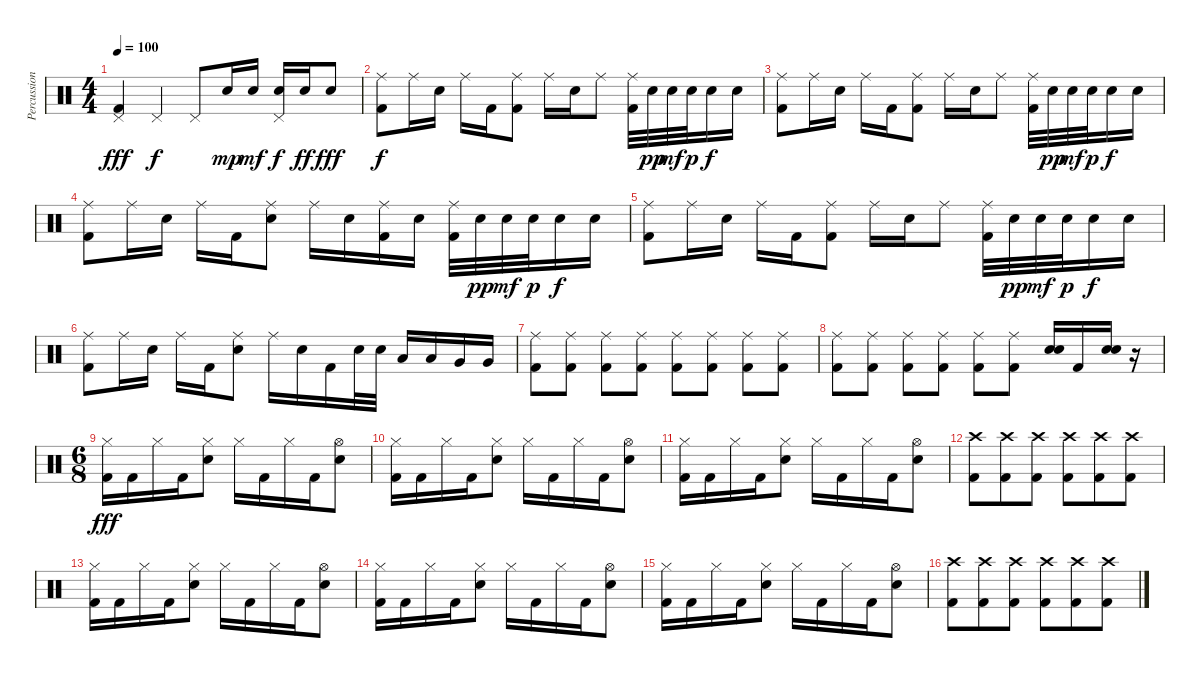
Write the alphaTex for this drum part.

\track ("Percussion" "Percussion") {instrument percussion}
\staff {score}
\articulation defaults
\ts (4 4)
\tempo 100
\clef neutral
\ks c
("Pedal Hi-Hat (hit)" "Kick (hit) 2").4{dy fff} "Pedal Hi-Hat (hit)".4{dy f} "Pedal Hi-Hat (hit)".8 "Electric Snare (hit)".16{dy mp} "Electric Snare (hit)".16{dy mf} ("Pedal Hi-Hat (hit)" "Electric Snare (hit)").16{dy f} "Electric Snare (hit)".16{dy ff} "Electric Snare (hit)".8{dy fff} |
("Ride (middle)" "Kick (hit) 2").8{dy f} "Ride (middle)".16 "Electric Snare (hit)".16 "Ride (middle)".16 "Kick (hit) 2".16 ("Ride (middle)" "Kick (hit) 2").8 "Ride (middle)".16 "Electric Snare (hit)".16 "Ride (middle)".8 ("Ride (middle)" "Kick (hit) 2").32 "Electric Snare (hit)".32{dy pp} "Electric Snare (hit)".32{dy mf} "Electric Snare (hit)".32{dy p} "Electric Snare (hit)".16{dy f} "Electric Snare (hit)".16 |
("Ride (middle)" "Kick (hit) 2").8 "Ride (middle)".16 "Electric Snare (hit)".16 "Ride (middle)".16 "Kick (hit) 2".16 ("Ride (middle)" "Kick (hit) 2").8 "Ride (middle)".16 "Electric Snare (hit)".16 "Ride (middle)".8 ("Ride (middle)" "Kick (hit) 2").32 "Electric Snare (hit)".32{dy pp} "Electric Snare (hit)".32{dy mf} "Electric Snare (hit)".32{dy p} "Electric Snare (hit)".16{dy f} "Electric Snare (hit)".16 |
("Ride (middle)" "Kick (hit) 2").8 "Ride (middle)".16 "Electric Snare (hit)".16 "Ride (middle)".16 "Kick (hit) 2".16 ("Ride (middle)" "Electric Snare (hit)").8 "Ride (middle)".16 "Electric Snare (hit)".16 ("Ride (middle)" "Kick (hit) 2").16 "Electric Snare (hit)".16 ("Ride (middle)" "Kick (hit) 2").32 "Electric Snare (hit)".32{dy pp} "Electric Snare (hit)".32{dy mf} "Electric Snare (hit)".32{dy p} "Electric Snare (hit)".16{dy f} "Electric Snare (hit)".16 |
("Ride (middle)" "Kick (hit) 2").8 "Ride (middle)".16 "Electric Snare (hit)".16 "Ride (middle)".16 "Kick (hit) 2".16 ("Ride (middle)" "Kick (hit) 2").8 "Ride (middle)".16 "Electric Snare (hit)".16 "Ride (middle)".8 ("Ride (middle)" "Kick (hit) 2").32 "Electric Snare (hit)".32{dy pp} "Electric Snare (hit)".32{dy mf} "Electric Snare (hit)".32{dy p} "Electric Snare (hit)".16{dy f} "Electric Snare (hit)".16 |
("Ride (middle)" "Kick (hit) 2").8 "Ride (middle)".16 "Electric Snare (hit)".16 "Ride (middle)".16 "Kick (hit) 2".16 ("Ride (middle)" "Electric Snare (hit)").8 "Ride (middle)".16 "Electric Snare (hit)".16 "Kick (hit) 2".16 "Electric Snare (hit)".32 "Electric Snare (hit)".32 "Low Tom (hit)".16 "Low Tom (hit)".16 "Very Low Tom (hit)".16 "Very Low Tom (hit)".16 |
("Ride (middle)" "Kick (hit) 2").8 ("Ride (middle)" "Kick (hit) 2").8 ("Ride (middle)" "Kick (hit) 2").8 ("Ride (middle)" "Kick (hit) 2").8 ("Ride (middle)" "Kick (hit) 2").8 ("Ride (middle)" "Kick (hit) 2").8 ("Ride (middle)" "Kick (hit) 2").8 ("Ride (middle)" "Kick (hit) 2").8 |
("Ride (middle)" "Kick (hit) 2").8 ("Ride (middle)" "Kick (hit) 2").8 ("Ride (middle)" "Kick (hit) 2").8 ("Ride (middle)" "Kick (hit) 2").8 ("Ride (middle)" "Kick (hit) 2").8 ("Ride (middle)" "Kick (hit) 2").8 ("Electric Snare (hit)" "Electric Snare (hit)").16 "Kick (hit) 2".16 ("Electric Snare (hit)" "Electric Snare (hit)").16 r.16 |
\ts (6 8)
("Hi-Hat (closed)" "Kick (hit) 2").16{dy fff} "Kick (hit) 2".16 "Hi-Hat (closed)".16 "Kick (hit) 2".16 ("Hi-Hat (closed)" "Electric Snare (hit)").8 "Hi-Hat (closed)".16 "Kick (hit) 2".16 "Hi-Hat (closed)".16 "Kick (hit) 2".16 ("Hi-Hat (open)" "Electric Snare (hit)").8 |
("Hi-Hat (closed)" "Kick (hit) 2").16 "Kick (hit) 2".16 "Hi-Hat (closed)".16 "Kick (hit) 2".16 ("Hi-Hat (closed)" "Electric Snare (hit)").8 "Hi-Hat (closed)".16 "Kick (hit) 2".16 "Hi-Hat (closed)".16 "Kick (hit) 2".16 ("Hi-Hat (open)" "Electric Snare (hit)").8 |
("Hi-Hat (closed)" "Kick (hit) 2").16 "Kick (hit) 2".16 "Hi-Hat (closed)".16 "Kick (hit) 2".16 ("Hi-Hat (closed)" "Electric Snare (hit)").8 "Hi-Hat (closed)".16 "Kick (hit) 2".16 "Hi-Hat (closed)".16 "Kick (hit) 2".16 ("Hi-Hat (open)" "Electric Snare (hit)").8 |
("Crash high (hit)" "Kick (hit) 2").8 ("Crash high (hit)" "Kick (hit) 2").8 ("Crash high (hit)" "Kick (hit) 2").8 ("Crash high (hit)" "Kick (hit) 2").8 ("Crash high (hit)" "Kick (hit) 2").8 ("Crash high (hit)" "Kick (hit) 2").8 |
("Hi-Hat (closed)" "Kick (hit) 2").16 "Kick (hit) 2".16 "Hi-Hat (closed)".16 "Kick (hit) 2".16 ("Hi-Hat (closed)" "Electric Snare (hit)").8 "Hi-Hat (closed)".16 "Kick (hit) 2".16 "Hi-Hat (closed)".16 "Kick (hit) 2".16 ("Hi-Hat (open)" "Electric Snare (hit)").8 |
("Hi-Hat (closed)" "Kick (hit) 2").16 "Kick (hit) 2".16 "Hi-Hat (closed)".16 "Kick (hit) 2".16 ("Hi-Hat (closed)" "Electric Snare (hit)").8 "Hi-Hat (closed)".16 "Kick (hit) 2".16 "Hi-Hat (closed)".16 "Kick (hit) 2".16 ("Hi-Hat (open)" "Electric Snare (hit)").8 |
("Hi-Hat (closed)" "Kick (hit) 2").16 "Kick (hit) 2".16 "Hi-Hat (closed)".16 "Kick (hit) 2".16 ("Hi-Hat (closed)" "Electric Snare (hit)").8 "Hi-Hat (closed)".16 "Kick (hit) 2".16 "Hi-Hat (closed)".16 "Kick (hit) 2".16 ("Hi-Hat (open)" "Electric Snare (hit)").8 |
("Crash high (hit)" "Kick (hit) 2").8 ("Crash high (hit)" "Kick (hit) 2").8 ("Crash high (hit)" "Kick (hit) 2").8 ("Crash high (hit)" "Kick (hit) 2").8 ("Crash high (hit)" "Kick (hit) 2").8 ("Crash high (hit)" "Kick (hit) 2").8
